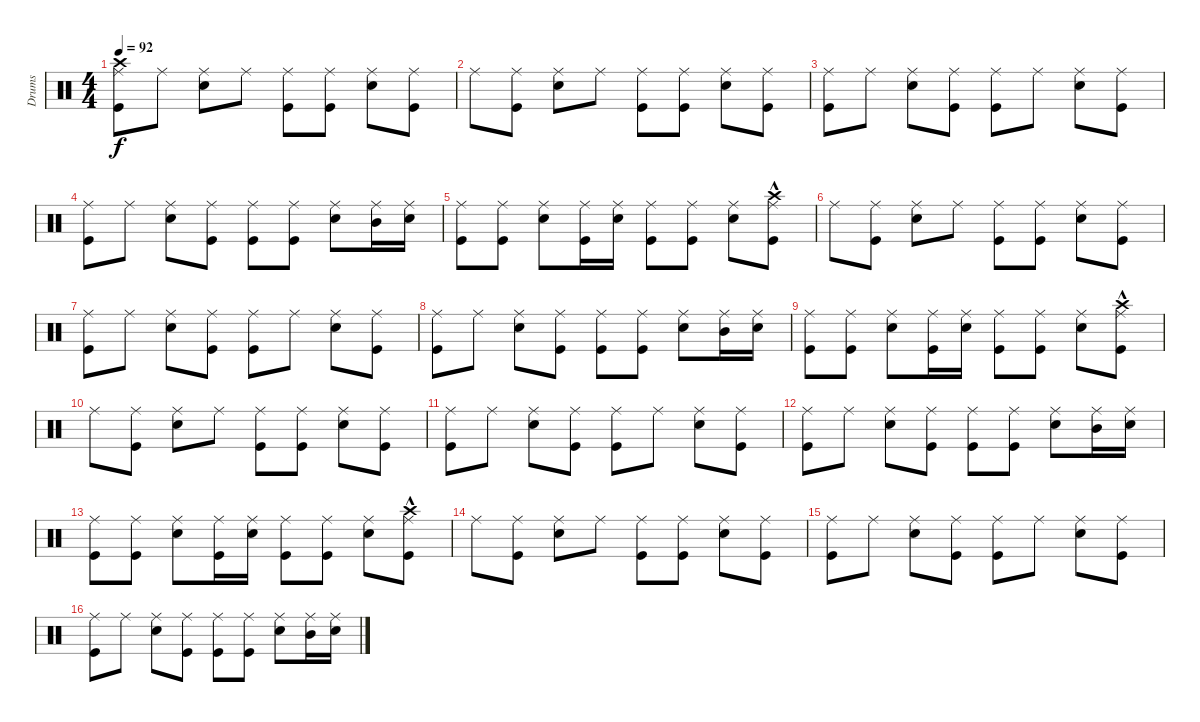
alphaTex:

\track ("Drums" "Drums") {instrument percussion}
\staff {score}
\articulation defaults
\ts (4 4)
\tempo 92
\clef neutral
\ks c
("Crash high (hit)" "Kick (hit)" "Ride (middle)").8{dy f} "Ride (middle)".8 ("Snare (hit) 2" "Ride (middle)").8 "Ride (middle)".8 ("Kick (hit)" "Ride (middle)").8 ("Kick (hit)" "Ride (middle)").8 ("Snare (hit) 2" "Ride (middle)").8 ("Kick (hit)" "Ride (middle)").8 |
"Ride (middle)".8 ("Kick (hit)" "Ride (middle)").8 ("Snare (hit) 2" "Ride (middle)").8 "Ride (middle)".8 ("Kick (hit)" "Ride (middle)").8 ("Kick (hit)" "Ride (middle)").8 ("Snare (hit) 2" "Ride (middle)").8 ("Kick (hit)" "Ride (middle)").8 |
("Kick (hit)" "Ride (middle)").8 "Ride (middle)".8 ("Snare (hit) 2" "Ride (middle)").8 ("Kick (hit)" "Ride (middle)").8 ("Kick (hit)" "Ride (middle)").8 "Ride (middle)".8 ("Snare (hit) 2" "Ride (middle)").8 ("Kick (hit)" "Ride (middle)").8 |
("Kick (hit)" "Ride (middle)").8 "Ride (middle)".8 ("Snare (hit) 2" "Ride (middle)").8 ("Kick (hit)" "Ride (middle)").8 ("Kick (hit)" "Ride (middle)").8 ("Kick (hit)" "Ride (middle)").8 ("Snare (hit) 2" "Ride (middle)").8 ("Mid Tom (hit)" "Ride (middle)").16 ("Snare (hit) 2" "Ride (middle)").16 |
("Kick (hit)" "Ride (middle)").8 ("Kick (hit)" "Ride (middle)").8 ("Snare (hit) 2" "Ride (middle)").8 ("Kick (hit)" "Ride (middle)").16 ("Snare (hit) 2" "Ride (middle)").16 ("Kick (hit)" "Ride (middle)").8 ("Kick (hit)" "Ride (middle)").8 ("Snare (hit) 2" "Ride (middle)").8 ("Crash high (hit)"{hac} "Kick (hit)" "Ride (middle)").8 |
"Ride (middle)".8 ("Kick (hit)" "Ride (middle)").8 ("Snare (hit) 2" "Ride (middle)").8 "Ride (middle)".8 ("Kick (hit)" "Ride (middle)").8 ("Kick (hit)" "Ride (middle)").8 ("Snare (hit) 2" "Ride (middle)").8 ("Kick (hit)" "Ride (middle)").8 |
("Kick (hit)" "Ride (middle)").8 "Ride (middle)".8 ("Snare (hit) 2" "Ride (middle)").8 ("Kick (hit)" "Ride (middle)").8 ("Kick (hit)" "Ride (middle)").8 "Ride (middle)".8 ("Snare (hit) 2" "Ride (middle)").8 ("Kick (hit)" "Ride (middle)").8 |
("Kick (hit)" "Ride (middle)").8 "Ride (middle)".8 ("Snare (hit) 2" "Ride (middle)").8 ("Kick (hit)" "Ride (middle)").8 ("Kick (hit)" "Ride (middle)").8 ("Kick (hit)" "Ride (middle)").8 ("Snare (hit) 2" "Ride (middle)").8 ("Mid Tom (hit)" "Ride (middle)").16 ("Snare (hit) 2" "Ride (middle)").16 |
("Kick (hit)" "Ride (middle)").8 ("Kick (hit)" "Ride (middle)").8 ("Snare (hit) 2" "Ride (middle)").8 ("Kick (hit)" "Ride (middle)").16 ("Snare (hit) 2" "Ride (middle)").16 ("Kick (hit)" "Ride (middle)").8 ("Kick (hit)" "Ride (middle)").8 ("Snare (hit) 2" "Ride (middle)").8 ("Crash high (hit)"{hac} "Kick (hit)" "Ride (middle)").8 |
"Ride (middle)".8 ("Kick (hit)" "Ride (middle)").8 ("Snare (hit) 2" "Ride (middle)").8 "Ride (middle)".8 ("Kick (hit)" "Ride (middle)").8 ("Kick (hit)" "Ride (middle)").8 ("Snare (hit) 2" "Ride (middle)").8 ("Kick (hit)" "Ride (middle)").8 |
("Kick (hit)" "Ride (middle)").8 "Ride (middle)".8 ("Snare (hit) 2" "Ride (middle)").8 ("Kick (hit)" "Ride (middle)").8 ("Kick (hit)" "Ride (middle)").8 "Ride (middle)".8 ("Snare (hit) 2" "Ride (middle)").8 ("Kick (hit)" "Ride (middle)").8 |
("Kick (hit)" "Ride (middle)").8 "Ride (middle)".8 ("Snare (hit) 2" "Ride (middle)").8 ("Kick (hit)" "Ride (middle)").8 ("Kick (hit)" "Ride (middle)").8 ("Kick (hit)" "Ride (middle)").8 ("Snare (hit) 2" "Ride (middle)").8 ("Mid Tom (hit)" "Ride (middle)").16 ("Snare (hit) 2" "Ride (middle)").16 |
("Kick (hit)" "Ride (middle)").8 ("Kick (hit)" "Ride (middle)").8 ("Snare (hit) 2" "Ride (middle)").8 ("Kick (hit)" "Ride (middle)").16 ("Snare (hit) 2" "Ride (middle)").16 ("Kick (hit)" "Ride (middle)").8 ("Kick (hit)" "Ride (middle)").8 ("Snare (hit) 2" "Ride (middle)").8 ("Crash high (hit)"{hac} "Kick (hit)" "Ride (middle)").8 |
"Ride (middle)".8 ("Kick (hit)" "Ride (middle)").8 ("Snare (hit) 2" "Ride (middle)").8 "Ride (middle)".8 ("Kick (hit)" "Ride (middle)").8 ("Kick (hit)" "Ride (middle)").8 ("Snare (hit) 2" "Ride (middle)").8 ("Kick (hit)" "Ride (middle)").8 |
("Kick (hit)" "Ride (middle)").8 "Ride (middle)".8 ("Snare (hit) 2" "Ride (middle)").8 ("Kick (hit)" "Ride (middle)").8 ("Kick (hit)" "Ride (middle)").8 "Ride (middle)".8 ("Snare (hit) 2" "Ride (middle)").8 ("Kick (hit)" "Ride (middle)").8 |
("Kick (hit)" "Ride (middle)").8 "Ride (middle)".8 ("Snare (hit) 2" "Ride (middle)").8 ("Kick (hit)" "Ride (middle)").8 ("Kick (hit)" "Ride (middle)").8 ("Kick (hit)" "Ride (middle)").8 ("Snare (hit) 2" "Ride (middle)").8 ("Mid Tom (hit)" "Ride (middle)").16 ("Snare (hit) 2" "Ride (middle)").16
